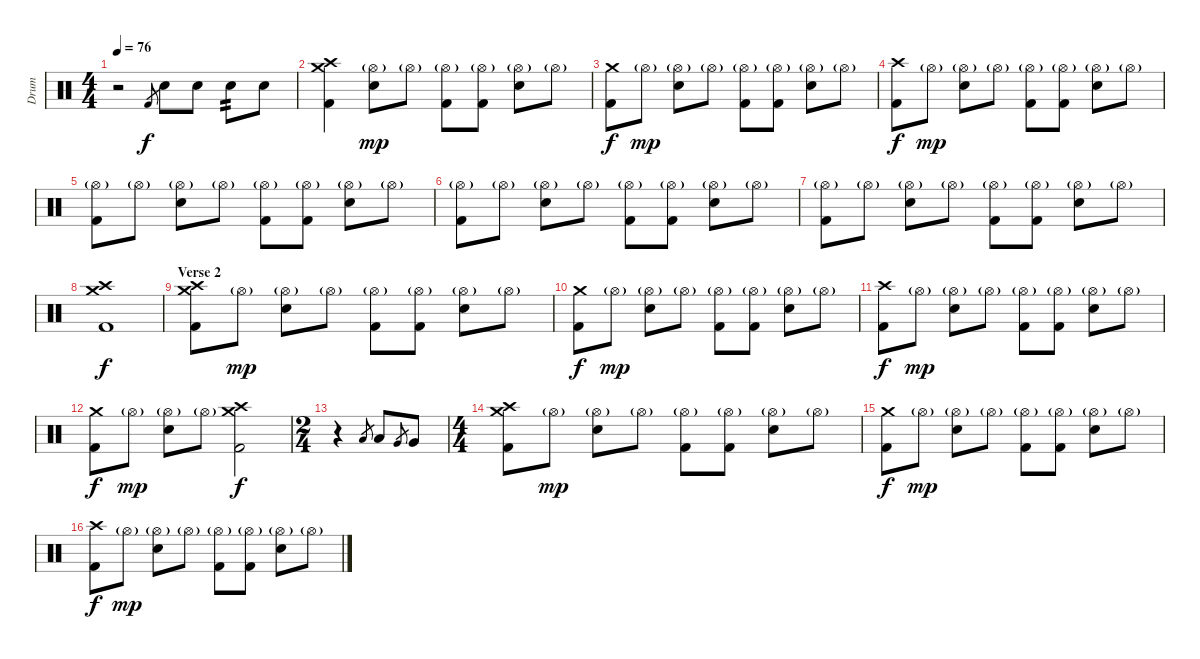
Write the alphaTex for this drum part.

\track ("Drum" "Drum") {instrument percussion}
\staff {score}
\articulation defaults
\ts (4 4)
\tempo 76
\clef neutral
\ks c
r.2{dy f} "Kick (hit) 2".8{gr} "Electric Snare (hit)".8 "Electric Snare (hit)".8 "Electric Snare (hit)".8{tp 2} "Electric Snare (hit)".8 |
("Kick (hit) 2" "Crash medium (hit)" "Crash high (hit)").4 ("Hi-Hat (open)"{g} "Electric Snare (hit)").8{dy mp} "Hi-Hat (open)"{g}.8 ("Hi-Hat (open)"{g} "Kick (hit) 2").8 ("Hi-Hat (open)"{g} "Kick (hit) 2").8 ("Hi-Hat (open)"{g} "Electric Snare (hit)").8 "Hi-Hat (open)"{g}.8 |
("Kick (hit) 2" "Crash medium (hit)").8{dy f} "Hi-Hat (open)"{g}.8{dy mp} ("Hi-Hat (open)"{g} "Electric Snare (hit)").8 "Hi-Hat (open)"{g}.8 ("Hi-Hat (open)"{g} "Kick (hit) 2").8 ("Hi-Hat (open)"{g} "Kick (hit) 2").8 ("Hi-Hat (open)"{g} "Electric Snare (hit)").8 "Hi-Hat (open)"{g}.8 |
("Kick (hit) 2" "Crash high (hit)").8{dy f} "Hi-Hat (open)"{g}.8{dy mp} ("Hi-Hat (open)"{g} "Electric Snare (hit)").8 "Hi-Hat (open)"{g}.8 ("Hi-Hat (open)"{g} "Kick (hit) 2").8 ("Hi-Hat (open)"{g} "Kick (hit) 2").8 ("Hi-Hat (open)"{g} "Electric Snare (hit)").8 "Hi-Hat (open)"{g}.8 |
("Hi-Hat (open)"{g} "Kick (hit) 2").8 "Hi-Hat (open)"{g}.8 ("Hi-Hat (open)"{g} "Electric Snare (hit)").8 "Hi-Hat (open)"{g}.8 ("Hi-Hat (open)"{g} "Kick (hit) 2").8 ("Hi-Hat (open)"{g} "Kick (hit) 2").8 ("Hi-Hat (open)"{g} "Electric Snare (hit)").8 "Hi-Hat (open)"{g}.8 |
("Hi-Hat (open)"{g} "Kick (hit) 2").8 "Hi-Hat (open)"{g}.8 ("Hi-Hat (open)"{g} "Electric Snare (hit)").8 "Hi-Hat (open)"{g}.8 ("Hi-Hat (open)"{g} "Kick (hit) 2").8 ("Hi-Hat (open)"{g} "Kick (hit) 2").8 ("Hi-Hat (open)"{g} "Electric Snare (hit)").8 "Hi-Hat (open)"{g}.8 |
("Hi-Hat (open)"{g} "Kick (hit) 2").8 "Hi-Hat (open)"{g}.8 ("Hi-Hat (open)"{g} "Electric Snare (hit)").8 "Hi-Hat (open)"{g}.8 ("Hi-Hat (open)"{g} "Kick (hit) 2").8 ("Hi-Hat (open)"{g} "Kick (hit) 2").8 ("Hi-Hat (open)"{g} "Electric Snare (hit)").8 "Hi-Hat (open)"{g}.8 |
("Kick (hit) 2" "Crash medium (hit)" "Crash high (hit)").1{dy f} |
\section ("" "Verse 2")
("Kick (hit) 2" "Crash medium (hit)" "Crash high (hit)").8 "Hi-Hat (open)"{g}.8{dy mp} ("Hi-Hat (open)"{g} "Electric Snare (hit)").8 "Hi-Hat (open)"{g}.8 ("Hi-Hat (open)"{g} "Kick (hit) 2").8 ("Hi-Hat (open)"{g} "Kick (hit) 2").8 ("Hi-Hat (open)"{g} "Electric Snare (hit)").8 "Hi-Hat (open)"{g}.8 |
("Kick (hit) 2" "Crash medium (hit)").8{dy f} "Hi-Hat (open)"{g}.8{dy mp} ("Hi-Hat (open)"{g} "Electric Snare (hit)").8 "Hi-Hat (open)"{g}.8 ("Hi-Hat (open)"{g} "Kick (hit) 2").8 ("Hi-Hat (open)"{g} "Kick (hit) 2").8 ("Hi-Hat (open)"{g} "Electric Snare (hit)").8 "Hi-Hat (open)"{g}.8 |
("Kick (hit) 2" "Crash high (hit)").8{dy f} "Hi-Hat (open)"{g}.8{dy mp} ("Hi-Hat (open)"{g} "Electric Snare (hit)").8 "Hi-Hat (open)"{g}.8 ("Hi-Hat (open)"{g} "Kick (hit) 2").8 ("Hi-Hat (open)"{g} "Kick (hit) 2").8 ("Hi-Hat (open)"{g} "Electric Snare (hit)").8 "Hi-Hat (open)"{g}.8 |
("Kick (hit) 2" "Crash medium (hit)").8{dy f} "Hi-Hat (open)"{g}.8{dy mp} ("Hi-Hat (open)"{g} "Electric Snare (hit)").8 "Hi-Hat (open)"{g}.8 ("Kick (hit) 2" "Crash medium (hit)" "Crash high (hit)").2{dy f} |
\ts (2 4)
r.4 "Low Tom (hit)".8{gr} "Low Tom (hit)".8 "Very Low Tom (hit)".8{gr} "Very Low Tom (hit)".8 |
\ts (4 4)
("Kick (hit) 2" "Crash medium (hit)" "Crash high (hit)").8 "Hi-Hat (open)"{g}.8{dy mp} ("Hi-Hat (open)"{g} "Electric Snare (hit)").8 "Hi-Hat (open)"{g}.8 ("Hi-Hat (open)"{g} "Kick (hit) 2").8 ("Hi-Hat (open)"{g} "Kick (hit) 2").8 ("Hi-Hat (open)"{g} "Electric Snare (hit)").8 "Hi-Hat (open)"{g}.8 |
("Kick (hit) 2" "Crash medium (hit)").8{dy f} "Hi-Hat (open)"{g}.8{dy mp} ("Hi-Hat (open)"{g} "Electric Snare (hit)").8 "Hi-Hat (open)"{g}.8 ("Hi-Hat (open)"{g} "Kick (hit) 2").8 ("Hi-Hat (open)"{g} "Kick (hit) 2").8 ("Hi-Hat (open)"{g} "Electric Snare (hit)").8 "Hi-Hat (open)"{g}.8 |
("Kick (hit) 2" "Crash high (hit)").8{dy f} "Hi-Hat (open)"{g}.8{dy mp} ("Hi-Hat (open)"{g} "Electric Snare (hit)").8 "Hi-Hat (open)"{g}.8 ("Hi-Hat (open)"{g} "Kick (hit) 2").8 ("Hi-Hat (open)"{g} "Kick (hit) 2").8 ("Hi-Hat (open)"{g} "Electric Snare (hit)").8 "Hi-Hat (open)"{g}.8
